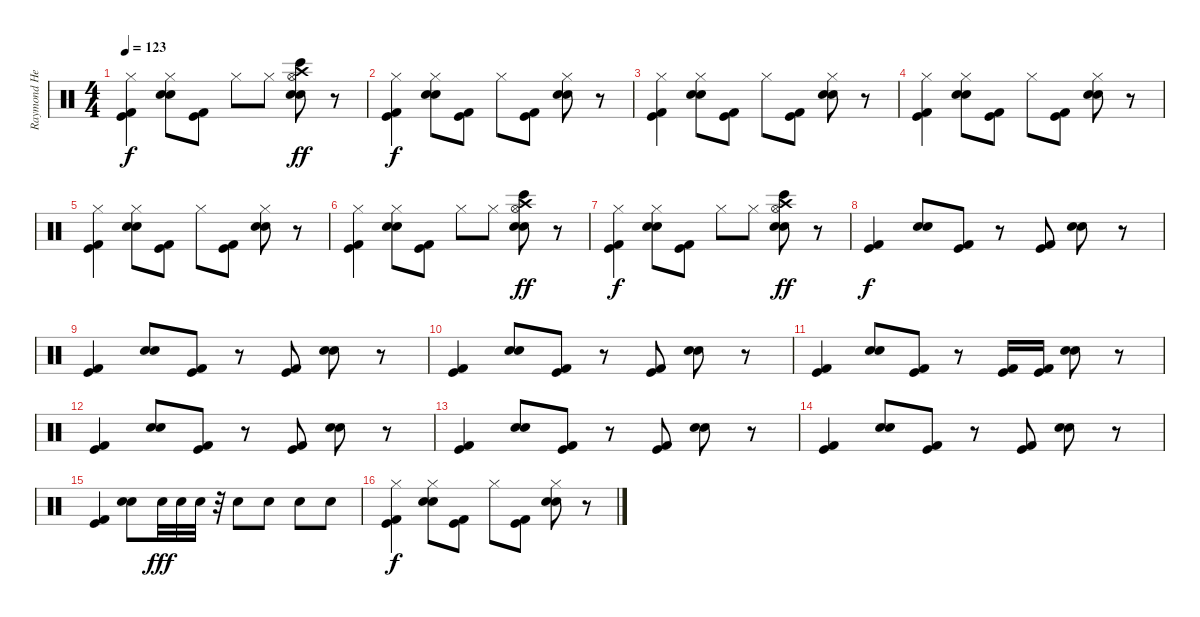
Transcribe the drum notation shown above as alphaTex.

\track ("Raymond Herrera" "Raymond He") {instrument percussion}
\staff {score}
\articulation defaults
\ts (4 4)
\tempo 123
\clef neutral
\ks c
("Hi-Hat (closed)" "Kick (hit)" "Kick (hit) 2").4{dy f} ("Hi-Hat (closed)" "Electric Snare (hit)" "Electric Snare (hit)").8 ("Kick (hit)" "Kick (hit) 2").8 "Hi-Hat (closed)".8 "Hi-Hat (closed)".8 ("Hi-Hat (open)" "Crash high (hit)" "Electric Snare (hit)" "Electric Snare (hit)" "Bongo High (hit)").8{dy ff} r.8 |
("Hi-Hat (closed)" "Kick (hit)" "Kick (hit) 2").4{dy f} ("Hi-Hat (closed)" "Electric Snare (hit)" "Electric Snare (hit)").8 ("Kick (hit)" "Kick (hit) 2").8 "Hi-Hat (closed)".8 ("Kick (hit) 2" "Kick (hit)").8 ("Hi-Hat (closed)" "Electric Snare (hit)" "Electric Snare (hit)").8 r.8 |
("Hi-Hat (closed)" "Kick (hit)" "Kick (hit) 2").4 ("Hi-Hat (closed)" "Electric Snare (hit)" "Electric Snare (hit)").8 ("Kick (hit)" "Kick (hit) 2").8 "Hi-Hat (closed)".8 ("Kick (hit) 2" "Kick (hit)").8 ("Hi-Hat (closed)" "Electric Snare (hit)" "Electric Snare (hit)").8 r.8 |
("Hi-Hat (closed)" "Kick (hit)" "Kick (hit) 2").4 ("Hi-Hat (closed)" "Electric Snare (hit)" "Electric Snare (hit)").8 ("Kick (hit)" "Kick (hit) 2").8 "Hi-Hat (closed)".8 ("Kick (hit) 2" "Kick (hit)").8 ("Hi-Hat (closed)" "Electric Snare (hit)" "Electric Snare (hit)").8 r.8 |
("Hi-Hat (closed)" "Kick (hit)" "Kick (hit) 2").4 ("Hi-Hat (closed)" "Electric Snare (hit)" "Electric Snare (hit)").8 ("Kick (hit)" "Kick (hit) 2").8 "Hi-Hat (closed)".8 ("Kick (hit) 2" "Kick (hit)").8 ("Hi-Hat (closed)" "Electric Snare (hit)" "Electric Snare (hit)").8 r.8 |
("Hi-Hat (closed)" "Kick (hit)" "Kick (hit) 2").4 ("Hi-Hat (closed)" "Electric Snare (hit)" "Electric Snare (hit)").8 ("Kick (hit)" "Kick (hit) 2").8 "Hi-Hat (closed)".8 "Hi-Hat (closed)".8 ("Hi-Hat (open)" "Crash high (hit)" "Electric Snare (hit)" "Electric Snare (hit)" "Bongo High (hit)").8{dy ff} r.8 |
("Hi-Hat (closed)" "Kick (hit)" "Kick (hit) 2").4{dy f} ("Hi-Hat (closed)" "Electric Snare (hit)" "Electric Snare (hit)").8 ("Kick (hit)" "Kick (hit) 2").8 "Hi-Hat (closed)".8 "Hi-Hat (closed)".8 ("Hi-Hat (open)" "Crash high (hit)" "Electric Snare (hit)" "Electric Snare (hit)" "Bongo High (hit)").8{dy ff} r.8 |
("Kick (hit)" "Kick (hit) 2").4{dy f} ("Electric Snare (hit)" "Electric Snare (hit)").8 ("Kick (hit)" "Kick (hit) 2").8 r.8 ("Kick (hit) 2" "Kick (hit)").8 ("Electric Snare (hit)" "Electric Snare (hit)").8 r.8 |
("Kick (hit)" "Kick (hit) 2").4 ("Electric Snare (hit)" "Electric Snare (hit)").8 ("Kick (hit)" "Kick (hit) 2").8 r.8 ("Kick (hit) 2" "Kick (hit)").8 ("Electric Snare (hit)" "Electric Snare (hit)").8 r.8 |
("Kick (hit)" "Kick (hit) 2").4 ("Electric Snare (hit)" "Electric Snare (hit)").8 ("Kick (hit)" "Kick (hit) 2").8 r.8 ("Kick (hit) 2" "Kick (hit)").8 ("Electric Snare (hit)" "Electric Snare (hit)").8 r.8 |
("Kick (hit)" "Kick (hit) 2").4 ("Electric Snare (hit)" "Electric Snare (hit)").8 ("Kick (hit)" "Kick (hit) 2").8 r.8 ("Kick (hit) 2" "Kick (hit)").16 ("Kick (hit) 2" "Kick (hit)").16 ("Electric Snare (hit)" "Electric Snare (hit)").8 r.8 |
("Kick (hit)" "Kick (hit) 2").4 ("Electric Snare (hit)" "Electric Snare (hit)").8 ("Kick (hit)" "Kick (hit) 2").8 r.8 ("Kick (hit) 2" "Kick (hit)").8 ("Electric Snare (hit)" "Electric Snare (hit)").8 r.8 |
("Kick (hit)" "Kick (hit) 2").4 ("Electric Snare (hit)" "Electric Snare (hit)").8 ("Kick (hit)" "Kick (hit) 2").8 r.8 ("Kick (hit) 2" "Kick (hit)").8 ("Electric Snare (hit)" "Electric Snare (hit)").8 r.8 |
("Kick (hit)" "Kick (hit) 2").4 ("Electric Snare (hit)" "Electric Snare (hit)").8 ("Kick (hit)" "Kick (hit) 2").8 r.8 ("Kick (hit) 2" "Kick (hit)").8 ("Electric Snare (hit)" "Electric Snare (hit)").8 r.8 |
("Kick (hit)" "Kick (hit) 2").4 ("Electric Snare (hit)" "Electric Snare (hit)").8 "Electric Snare (hit)".32{dy fff} "Electric Snare (hit)".32 "Electric Snare (hit)".32 r.32 "Electric Snare (hit)".8 "Electric Snare (hit)".8 "Electric Snare (hit)".8 "Electric Snare (hit)".8 |
("Hi-Hat (closed)" "Kick (hit)" "Kick (hit) 2").4{dy f} ("Hi-Hat (closed)" "Electric Snare (hit)" "Electric Snare (hit)").8 ("Kick (hit)" "Kick (hit) 2").8 "Hi-Hat (closed)".8 ("Kick (hit) 2" "Kick (hit)").8 ("Hi-Hat (closed)" "Electric Snare (hit)" "Electric Snare (hit)").8 r.8
